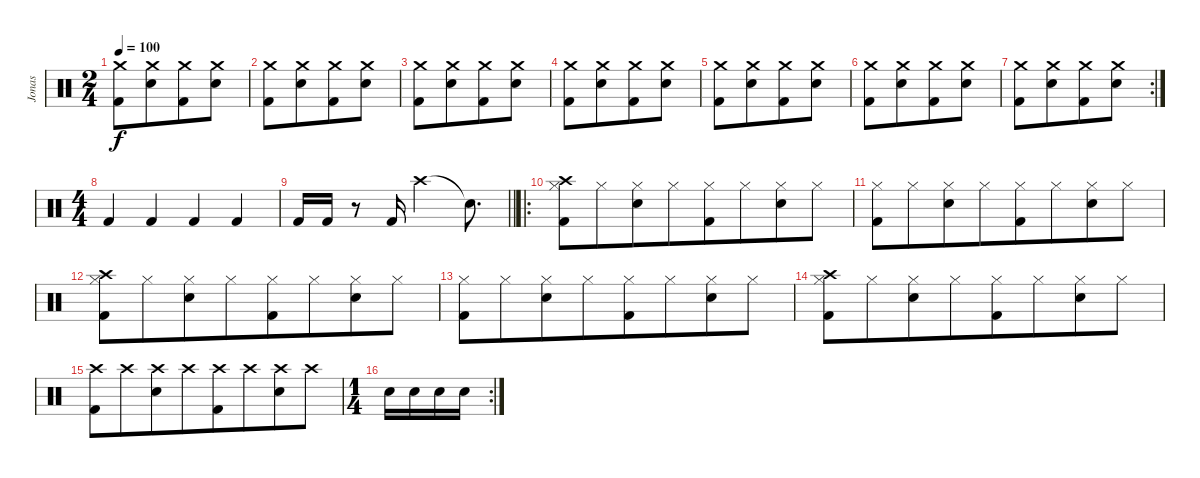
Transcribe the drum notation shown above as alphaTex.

\track ("Jonas" "Jonas") {instrument percussion}
\staff {score}
\articulation defaults
\ts (2 4)
\tempo 100
\clef neutral
\ks c
("Crash medium (hit)" "Kick (hit) 2").8{dy f beam merge} ("Crash medium (hit)" "Snare (hit) 2").8{beam merge} ("Crash medium (hit)" "Kick (hit) 2").8{beam merge} ("Crash medium (hit)" "Snare (hit) 2").8 |
("Crash medium (hit)" "Kick (hit) 2").8{beam merge} ("Crash medium (hit)" "Snare (hit) 2").8{beam merge} ("Crash medium (hit)" "Kick (hit) 2").8{beam merge} ("Crash medium (hit)" "Snare (hit) 2").8 |
("Crash medium (hit)" "Kick (hit) 2").8{beam merge} ("Crash medium (hit)" "Snare (hit) 2").8{beam merge} ("Crash medium (hit)" "Kick (hit) 2").8{beam merge} ("Crash medium (hit)" "Snare (hit) 2").8 |
("Crash medium (hit)" "Kick (hit) 2").8{beam merge} ("Crash medium (hit)" "Snare (hit) 2").8{beam merge} ("Crash medium (hit)" "Kick (hit) 2").8{beam merge} ("Crash medium (hit)" "Snare (hit) 2").8 |
("Crash medium (hit)" "Kick (hit) 2").8{beam merge} ("Crash medium (hit)" "Snare (hit) 2").8{beam merge} ("Crash medium (hit)" "Kick (hit) 2").8{beam merge} ("Crash medium (hit)" "Snare (hit) 2").8 |
("Crash medium (hit)" "Kick (hit) 2").8{beam merge} ("Crash medium (hit)" "Snare (hit) 2").8{beam merge} ("Crash medium (hit)" "Kick (hit) 2").8{beam merge} ("Crash medium (hit)" "Snare (hit) 2").8 |
\rc 2
("Crash medium (hit)" "Kick (hit) 2").8{beam merge} ("Crash medium (hit)" "Snare (hit) 2").8{beam merge} ("Crash medium (hit)" "Kick (hit) 2").8{beam merge} ("Crash medium (hit)" "Snare (hit) 2").8 |
\ts (4 4)
"Kick (hit) 2".4 "Kick (hit) 2".4 "Kick (hit) 2".4 "Kick (hit) 2".4 |
\barLineRight lightlight "Kick (hit) 2".16{beam merge} "Kick (hit) 2".16
r.8 "Kick (hit) 2".16 "Crash high (hit)".2 "Snare (hit)"{t}.8{d} |
\ro
("Crash high (hit)" "Hi-Hat (closed)" "Kick (hit) 2").8{beam merge} "Hi-Hat (closed)".8{beam merge} ("Hi-Hat (closed)" "Snare (hit) 2").8{beam merge} "Hi-Hat (closed)".8{beam merge} ("Hi-Hat (closed)" "Kick (hit) 2").8{beam merge} "Hi-Hat (closed)".8{beam merge} ("Hi-Hat (closed)" "Snare (hit) 2").8{beam merge} "Hi-Hat (closed)".8 |
("Hi-Hat (closed)" "Kick (hit) 2").8{beam merge} "Hi-Hat (closed)".8{beam merge} ("Hi-Hat (closed)" "Snare (hit) 2").8{beam merge} "Hi-Hat (closed)".8{beam merge} ("Hi-Hat (closed)" "Kick (hit) 2").8{beam merge} "Hi-Hat (closed)".8{beam merge} ("Hi-Hat (closed)" "Snare (hit) 2").8{beam merge} "Hi-Hat (closed)".8 |
("Crash high (hit)" "Hi-Hat (closed)" "Kick (hit) 2").8{beam merge} "Hi-Hat (closed)".8{beam merge} ("Hi-Hat (closed)" "Snare (hit) 2").8{beam merge} "Hi-Hat (closed)".8{beam merge} ("Hi-Hat (closed)" "Kick (hit) 2").8{beam merge} "Hi-Hat (closed)".8{beam merge} ("Hi-Hat (closed)" "Snare (hit) 2").8{beam merge} "Hi-Hat (closed)".8 |
("Hi-Hat (closed)" "Kick (hit) 2").8{beam merge} "Hi-Hat (closed)".8{beam merge} ("Hi-Hat (closed)" "Snare (hit) 2").8{beam merge} "Hi-Hat (closed)".8{beam merge} ("Hi-Hat (closed)" "Kick (hit) 2").8{beam merge} "Hi-Hat (closed)".8{beam merge} ("Hi-Hat (closed)" "Snare (hit) 2").8{beam merge} "Hi-Hat (closed)".8 |
("Crash high (hit)" "Hi-Hat (closed)" "Kick (hit) 2").8{beam merge} "Hi-Hat (closed)".8{beam merge} ("Hi-Hat (closed)" "Snare (hit) 2").8{beam merge} "Hi-Hat (closed)".8{beam merge} ("Hi-Hat (closed)" "Kick (hit) 2").8{beam merge} "Hi-Hat (closed)".8{beam merge} ("Hi-Hat (closed)" "Snare (hit) 2").8{beam merge} "Hi-Hat (closed)".8 |
("Crash high (hit)" "Kick (hit) 2").8{beam merge} "Crash high (hit)".8{beam merge} ("Crash high (hit)" "Snare (hit) 2").8{beam merge} "Crash high (hit)".8{beam merge} ("Crash high (hit)" "Kick (hit) 2").8{beam merge} "Crash high (hit)".8{beam merge} ("Crash high (hit)" "Snare (hit) 2").8{beam merge} "Crash high (hit)".8 |
\rc 2
\ts (1 4)
"Snare (hit) 2".16{beam merge} "Snare (hit) 2".16{beam merge} "Snare (hit) 2".16{beam merge} "Snare (hit) 2".16
